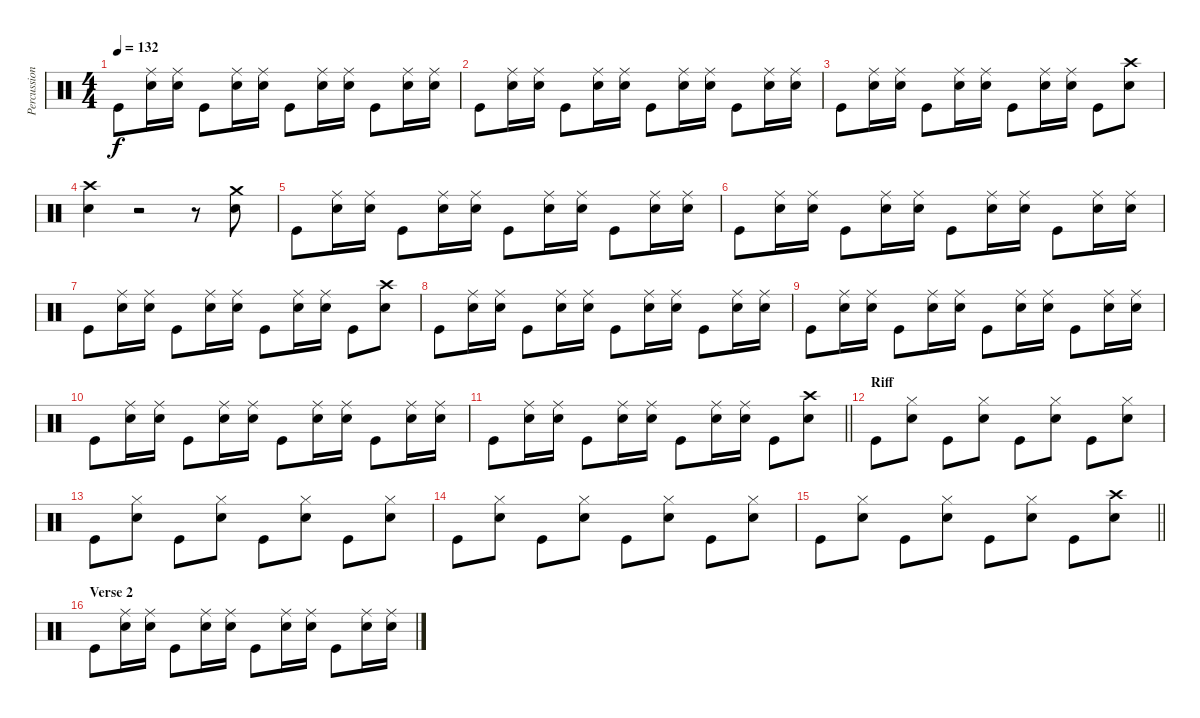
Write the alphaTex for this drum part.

\track ("Percussion" "Percussion") {instrument percussion}
\staff {score}
\articulation defaults
\ts (4 4)
\tempo 132
\clef neutral
\ks c "Kick (hit)".8{dy f}
("Ride (middle)" "Snare (hit) 2").16 ("Ride (middle)" "Snare (hit) 2").16 "Kick (hit)".8 ("Ride (middle)" "Snare (hit) 2").16 ("Ride (middle)" "Snare (hit) 2").16 "Kick (hit)".8 ("Ride (middle)" "Snare (hit) 2").16 ("Ride (middle)" "Snare (hit) 2").16 "Kick (hit)".8 ("Ride (middle)" "Snare (hit) 2").16 ("Ride (middle)" "Snare (hit) 2").16 |
"Kick (hit)".8 ("Ride (middle)" "Snare (hit) 2").16 ("Ride (middle)" "Snare (hit) 2").16 "Kick (hit)".8 ("Ride (middle)" "Snare (hit) 2").16 ("Ride (middle)" "Snare (hit) 2").16 "Kick (hit)".8 ("Ride (middle)" "Snare (hit) 2").16 ("Ride (middle)" "Snare (hit) 2").16 "Kick (hit)".8 ("Ride (middle)" "Snare (hit) 2").16 ("Ride (middle)" "Snare (hit) 2").16 |
"Kick (hit)".8 ("Ride (middle)" "Snare (hit) 2").16 ("Ride (middle)" "Snare (hit) 2").16 "Kick (hit)".8 ("Ride (middle)" "Snare (hit) 2").16 ("Ride (middle)" "Snare (hit) 2").16 "Kick (hit)".8 ("Ride (middle)" "Snare (hit) 2").16 ("Ride (middle)" "Snare (hit) 2").16 "Kick (hit)".8 ("Crash high (hit)" "Snare (hit) 2").8 |
("Crash high (hit)" "Snare (hit) 2").4 r.2 r.8 ("Crash medium (hit)" "Snare (hit) 2").8 |
"Kick (hit)".8 ("Ride (middle)" "Snare (hit) 2").16 ("Ride (middle)" "Snare (hit) 2").16 "Kick (hit)".8 ("Ride (middle)" "Snare (hit) 2").16 ("Ride (middle)" "Snare (hit) 2").16 "Kick (hit)".8 ("Ride (middle)" "Snare (hit) 2").16 ("Ride (middle)" "Snare (hit) 2").16 "Kick (hit)".8 ("Ride (middle)" "Snare (hit) 2").16 ("Ride (middle)" "Snare (hit) 2").16 |
"Kick (hit)".8 ("Ride (middle)" "Snare (hit) 2").16 ("Ride (middle)" "Snare (hit) 2").16 "Kick (hit)".8 ("Ride (middle)" "Snare (hit) 2").16 ("Ride (middle)" "Snare (hit) 2").16 "Kick (hit)".8 ("Ride (middle)" "Snare (hit) 2").16 ("Ride (middle)" "Snare (hit) 2").16 "Kick (hit)".8 ("Ride (middle)" "Snare (hit) 2").16 ("Ride (middle)" "Snare (hit) 2").16 |
"Kick (hit)".8 ("Ride (middle)" "Snare (hit) 2").16 ("Ride (middle)" "Snare (hit) 2").16 "Kick (hit)".8 ("Ride (middle)" "Snare (hit) 2").16 ("Ride (middle)" "Snare (hit) 2").16 "Kick (hit)".8 ("Ride (middle)" "Snare (hit) 2").16 ("Ride (middle)" "Snare (hit) 2").16 "Kick (hit)".8 ("Crash high (hit)" "Snare (hit) 2").8 |
"Kick (hit)".8 ("Ride (middle)" "Snare (hit) 2").16 ("Ride (middle)" "Snare (hit) 2").16 "Kick (hit)".8 ("Ride (middle)" "Snare (hit) 2").16 ("Ride (middle)" "Snare (hit) 2").16 "Kick (hit)".8 ("Ride (middle)" "Snare (hit) 2").16 ("Ride (middle)" "Snare (hit) 2").16 "Kick (hit)".8 ("Ride (middle)" "Snare (hit) 2").16 ("Ride (middle)" "Snare (hit) 2").16 |
"Kick (hit)".8 ("Ride (middle)" "Snare (hit) 2").16 ("Ride (middle)" "Snare (hit) 2").16 "Kick (hit)".8 ("Ride (middle)" "Snare (hit) 2").16 ("Ride (middle)" "Snare (hit) 2").16 "Kick (hit)".8 ("Ride (middle)" "Snare (hit) 2").16 ("Ride (middle)" "Snare (hit) 2").16 "Kick (hit)".8 ("Ride (middle)" "Snare (hit) 2").16 ("Ride (middle)" "Snare (hit) 2").16 |
"Kick (hit)".8 ("Ride (middle)" "Snare (hit) 2").16 ("Ride (middle)" "Snare (hit) 2").16 "Kick (hit)".8 ("Ride (middle)" "Snare (hit) 2").16 ("Ride (middle)" "Snare (hit) 2").16 "Kick (hit)".8 ("Ride (middle)" "Snare (hit) 2").16 ("Ride (middle)" "Snare (hit) 2").16 "Kick (hit)".8 ("Ride (middle)" "Snare (hit) 2").16 ("Ride (middle)" "Snare (hit) 2").16 |
\barLineRight lightlight "Kick (hit)".8
("Ride (middle)" "Snare (hit) 2").16 ("Ride (middle)" "Snare (hit) 2").16 "Kick (hit)".8 ("Ride (middle)" "Snare (hit) 2").16 ("Ride (middle)" "Snare (hit) 2").16 "Kick (hit)".8 ("Ride (middle)" "Snare (hit) 2").16 ("Ride (middle)" "Snare (hit) 2").16 "Kick (hit)".8 ("Crash high (hit)" "Snare (hit) 2").8 |
\section ("" "Riff")
"Kick (hit)".8 ("Hi-Hat (closed)" "Snare (hit) 2").8 "Kick (hit)".8 ("Hi-Hat (closed)" "Snare (hit) 2").8 "Kick (hit)".8 ("Hi-Hat (closed)" "Snare (hit) 2").8 "Kick (hit)".8 ("Hi-Hat (closed)" "Snare (hit) 2").8 |
"Kick (hit)".8 ("Hi-Hat (closed)" "Snare (hit) 2").8 "Kick (hit)".8 ("Hi-Hat (closed)" "Snare (hit) 2").8 "Kick (hit)".8 ("Hi-Hat (closed)" "Snare (hit) 2").8 "Kick (hit)".8 ("Hi-Hat (closed)" "Snare (hit) 2").8 |
"Kick (hit)".8 ("Hi-Hat (closed)" "Snare (hit) 2").8 "Kick (hit)".8 ("Hi-Hat (closed)" "Snare (hit) 2").8 "Kick (hit)".8 ("Hi-Hat (closed)" "Snare (hit) 2").8 "Kick (hit)".8 ("Hi-Hat (closed)" "Snare (hit) 2").8 |
\barLineRight lightlight "Kick (hit)".8
("Hi-Hat (closed)" "Snare (hit) 2").8 "Kick (hit)".8 ("Hi-Hat (closed)" "Snare (hit) 2").8 "Kick (hit)".8 ("Hi-Hat (closed)" "Snare (hit) 2").8 "Kick (hit)".8 ("Crash high (hit)" "Snare (hit) 2").8 |
\section ("" "Verse 2")
"Kick (hit)".8 ("Ride (middle)" "Snare (hit) 2").16 ("Ride (middle)" "Snare (hit) 2").16 "Kick (hit)".8 ("Ride (middle)" "Snare (hit) 2").16 ("Ride (middle)" "Snare (hit) 2").16 "Kick (hit)".8 ("Ride (middle)" "Snare (hit) 2").16 ("Ride (middle)" "Snare (hit) 2").16 "Kick (hit)".8 ("Ride (middle)" "Snare (hit) 2").16 ("Ride (middle)" "Snare (hit) 2").16
